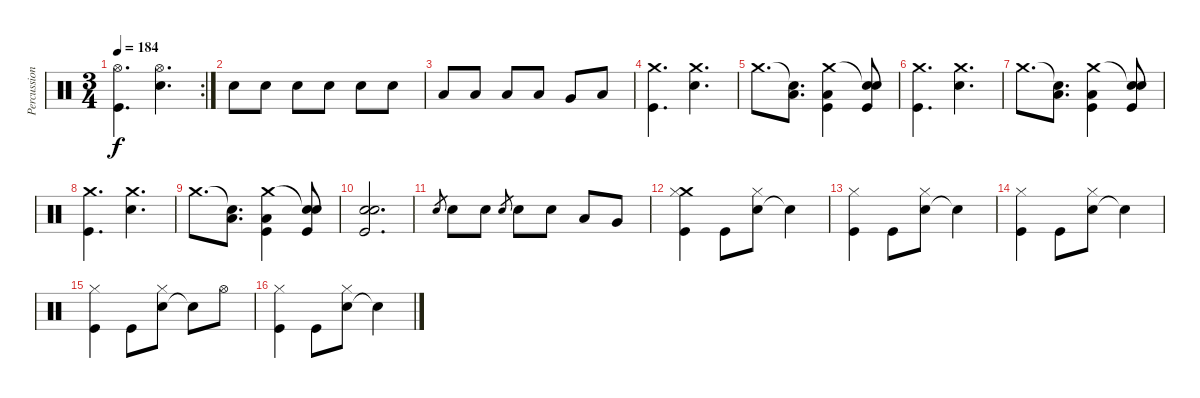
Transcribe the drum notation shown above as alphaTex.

\track ("Percussion" "Percussion") {instrument percussion}
\staff {score}
\articulation defaults
\rc 2
\ts (3 4)
\tempo 184
\clef neutral
\ks c
("Hi-Hat (open)" "Kick (hit)").4{d dy f} ("Hi-Hat (open)" "Snare (hit) 2").4{d} |
"Snare (hit) 2".8 "Snare (hit) 2".8 "Snare (hit) 2".8 "Snare (hit) 2".8 "Snare (hit) 2".8 "Snare (hit) 2".8 |
"Low Tom (hit)".8 "Low Tom (hit)".8 "Low Tom (hit)".8 "Low Tom (hit)".8 "Very Low Tom (hit)".8 "Low Floor Tom (hit)".8 |
("Crash medium (hit)" "Kick (hit)").4{d} ("Crash medium (hit)" "Snare (hit) 2").4{d} |
"Crash medium (hit)".8{d} ("Snare (hit)"{t} "Low Tom (hit)").8{d} ("Crash medium (hit)" "Low Tom (hit)" "Kick (hit)").4 ("Snare (hit)"{t} "Snare (hit) 2" "Kick (hit)").8 |
("Crash medium (hit)" "Kick (hit)").4{d} ("Crash medium (hit)" "Snare (hit) 2").4{d} |
"Crash medium (hit)".8{d} ("Snare (hit)"{t} "Low Tom (hit)").8{d} ("Crash medium (hit)" "Low Tom (hit)" "Kick (hit)").4 ("Snare (hit)"{t} "Snare (hit) 2" "Kick (hit)").8 |
("Crash medium (hit)" "Kick (hit)").4{d} ("Crash medium (hit)" "Snare (hit) 2").4{d} |
"Crash medium (hit)".8{d} ("Snare (hit)"{t} "Low Tom (hit)").8{d} ("Crash medium (hit)" "Low Tom (hit)" "Kick (hit)").4 ("Snare (hit)"{t} "Snare (hit) 2" "Kick (hit)").8 |
("Snare (hit) 2" "Snare (hit) 2" "Kick (hit)").2{d} |
"Snare (hit) 2".8{gr} "Snare (hit) 2".8 "Snare (hit) 2".8 "Snare (hit) 2".8{gr} "Snare (hit) 2".8 "Snare (hit) 2".8 "Low Tom (hit)".8 "Very Low Tom (hit)".8 |
("Crash medium (hit)" "Hi-Hat (closed)" "Kick (hit)").4 "Kick (hit)".8 ("Snare (hit) 2" "Hi-Hat (closed)").8 "Snare (hit)"{t}.4 |
("Hi-Hat (closed)" "Kick (hit)").4 "Kick (hit)".8 ("Snare (hit) 2" "Hi-Hat (closed)").8 "Snare (hit)"{t}.4 |
("Hi-Hat (closed)" "Kick (hit)").4 "Kick (hit)".8 ("Snare (hit) 2" "Hi-Hat (closed)").8 "Snare (hit)"{t}.4 |
("Hi-Hat (closed)" "Kick (hit)").4 "Kick (hit)".8 ("Snare (hit) 2" "Hi-Hat (closed)").8 "Snare (hit)"{t}.8 "Hi-Hat (open)".8 |
("Hi-Hat (closed)" "Kick (hit)").4 "Kick (hit)".8 ("Snare (hit) 2" "Hi-Hat (closed)").8 "Snare (hit)"{t}.4
